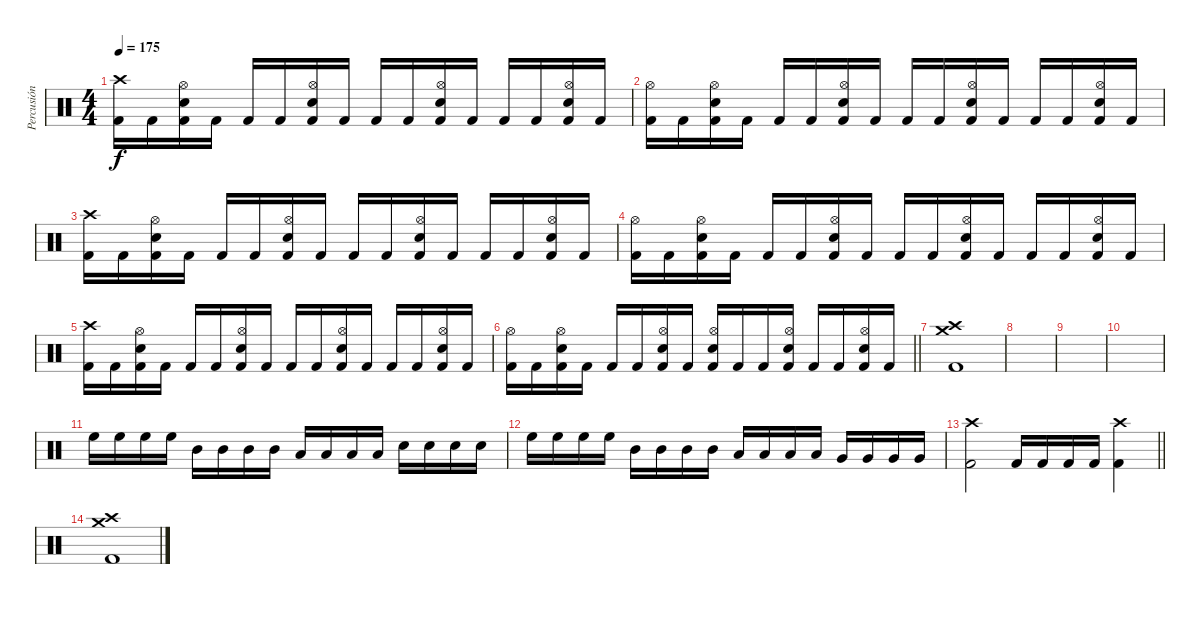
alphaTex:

\track ("Percusión" "Percusión") {instrument percussion}
\staff {score}
\articulation defaults
\ts (4 4)
\tempo 175
\clef neutral
\ks c
("Crash high (hit)" "Kick (hit) 2").16{dy f} "Kick (hit) 2".16 ("Hi-Hat (open)" "Electric Snare (hit)" "Kick (hit) 2").16 "Kick (hit) 2".16 "Kick (hit) 2".16 "Kick (hit) 2".16 ("Hi-Hat (open)" "Electric Snare (hit)" "Kick (hit) 2").16 "Kick (hit) 2".16 "Kick (hit) 2".16 "Kick (hit) 2".16 ("Hi-Hat (open)" "Electric Snare (hit)" "Kick (hit) 2").16 "Kick (hit) 2".16 "Kick (hit) 2".16 "Kick (hit) 2".16 ("Hi-Hat (open)" "Electric Snare (hit)" "Kick (hit) 2").16 "Kick (hit) 2".16 |
("Hi-Hat (open)" "Kick (hit) 2").16 "Kick (hit) 2".16 ("Hi-Hat (open)" "Electric Snare (hit)" "Kick (hit) 2").16 "Kick (hit) 2".16 "Kick (hit) 2".16 "Kick (hit) 2".16 ("Hi-Hat (open)" "Electric Snare (hit)" "Kick (hit) 2").16 "Kick (hit) 2".16 "Kick (hit) 2".16 "Kick (hit) 2".16 ("Hi-Hat (open)" "Electric Snare (hit)" "Kick (hit) 2").16 "Kick (hit) 2".16 "Kick (hit) 2".16 "Kick (hit) 2".16 ("Hi-Hat (open)" "Electric Snare (hit)" "Kick (hit) 2").16 "Kick (hit) 2".16 |
("Crash high (hit)" "Kick (hit) 2").16 "Kick (hit) 2".16 ("Hi-Hat (open)" "Electric Snare (hit)" "Kick (hit) 2").16 "Kick (hit) 2".16 "Kick (hit) 2".16 "Kick (hit) 2".16 ("Hi-Hat (open)" "Electric Snare (hit)" "Kick (hit) 2").16 "Kick (hit) 2".16 "Kick (hit) 2".16 "Kick (hit) 2".16 ("Hi-Hat (open)" "Electric Snare (hit)" "Kick (hit) 2").16 "Kick (hit) 2".16 "Kick (hit) 2".16 "Kick (hit) 2".16 ("Hi-Hat (open)" "Electric Snare (hit)" "Kick (hit) 2").16 "Kick (hit) 2".16 |
("Hi-Hat (open)" "Kick (hit) 2").16 "Kick (hit) 2".16 ("Hi-Hat (open)" "Electric Snare (hit)" "Kick (hit) 2").16 "Kick (hit) 2".16 "Kick (hit) 2".16 "Kick (hit) 2".16 ("Hi-Hat (open)" "Electric Snare (hit)" "Kick (hit) 2").16 "Kick (hit) 2".16 "Kick (hit) 2".16 "Kick (hit) 2".16 ("Hi-Hat (open)" "Electric Snare (hit)" "Kick (hit) 2").16 "Kick (hit) 2".16 "Kick (hit) 2".16 "Kick (hit) 2".16 ("Hi-Hat (open)" "Electric Snare (hit)" "Kick (hit) 2").16 "Kick (hit) 2".16 |
("Crash high (hit)" "Kick (hit) 2").16 "Kick (hit) 2".16 ("Hi-Hat (open)" "Electric Snare (hit)" "Kick (hit) 2").16 "Kick (hit) 2".16 "Kick (hit) 2".16 "Kick (hit) 2".16 ("Hi-Hat (open)" "Electric Snare (hit)" "Kick (hit) 2").16 "Kick (hit) 2".16 "Kick (hit) 2".16 "Kick (hit) 2".16 ("Hi-Hat (open)" "Electric Snare (hit)" "Kick (hit) 2").16 "Kick (hit) 2".16 "Kick (hit) 2".16 "Kick (hit) 2".16 ("Hi-Hat (open)" "Electric Snare (hit)" "Kick (hit) 2").16 "Kick (hit) 2".16 |
\barLineRight lightlight
("Hi-Hat (open)" "Kick (hit) 2").16 "Kick (hit) 2".16 ("Hi-Hat (open)" "Electric Snare (hit)" "Kick (hit) 2").16 "Kick (hit) 2".16 "Kick (hit) 2".16 "Kick (hit) 2".16 ("Hi-Hat (open)" "Electric Snare (hit)" "Kick (hit) 2").16 "Kick (hit) 2".16 ("Hi-Hat (open)" "Electric Snare (hit)" "Kick (hit) 2").16 "Kick (hit) 2".16 "Kick (hit) 2".16 ("Hi-Hat (open)" "Electric Snare (hit)" "Kick (hit) 2").16 "Kick (hit) 2".16 "Kick (hit) 2".16 ("Hi-Hat (open)" "Electric Snare (hit)" "Kick (hit) 2").16 "Kick (hit) 2".16 |
("Crash medium (hit)" "Crash high (hit)" "Kick (hit) 2").1 |
|
|
|
"High Floor Tom (hit)".16 "High Floor Tom (hit)".16 "High Floor Tom (hit)".16 "High Floor Tom (hit)".16 "Mid Tom (hit)".16 "Mid Tom (hit)".16 "Mid Tom (hit)".16 "Mid Tom (hit)".16 "Low Floor Tom (hit)".16 "Low Floor Tom (hit)".16 "Low Floor Tom (hit)".16 "Low Floor Tom (hit)".16 "Electric Snare (hit)".16 "Electric Snare (hit)".16 "Electric Snare (hit)".16 "Electric Snare (hit)".16 |
"High Floor Tom (hit)".16 "High Floor Tom (hit)".16 "High Floor Tom (hit)".16 "High Floor Tom (hit)".16 "Mid Tom (hit)".16 "Mid Tom (hit)".16 "Mid Tom (hit)".16 "Mid Tom (hit)".16 "Low Floor Tom (hit)".16 "Low Floor Tom (hit)".16 "Low Floor Tom (hit)".16 "Low Floor Tom (hit)".16 "Very Low Tom (hit)".16 "Very Low Tom (hit)".16 "Very Low Tom (hit)".16 "Very Low Tom (hit)".16 |
\barLineRight lightlight
("Crash high (hit)" "Kick (hit) 2").2 "Kick (hit) 2".16 "Kick (hit) 2".16 "Kick (hit) 2".16 "Kick (hit) 2".16 ("Crash high (hit)" "Kick (hit) 2").4 |
("Crash medium (hit)" "Crash high (hit)" "Kick (hit) 2").1
